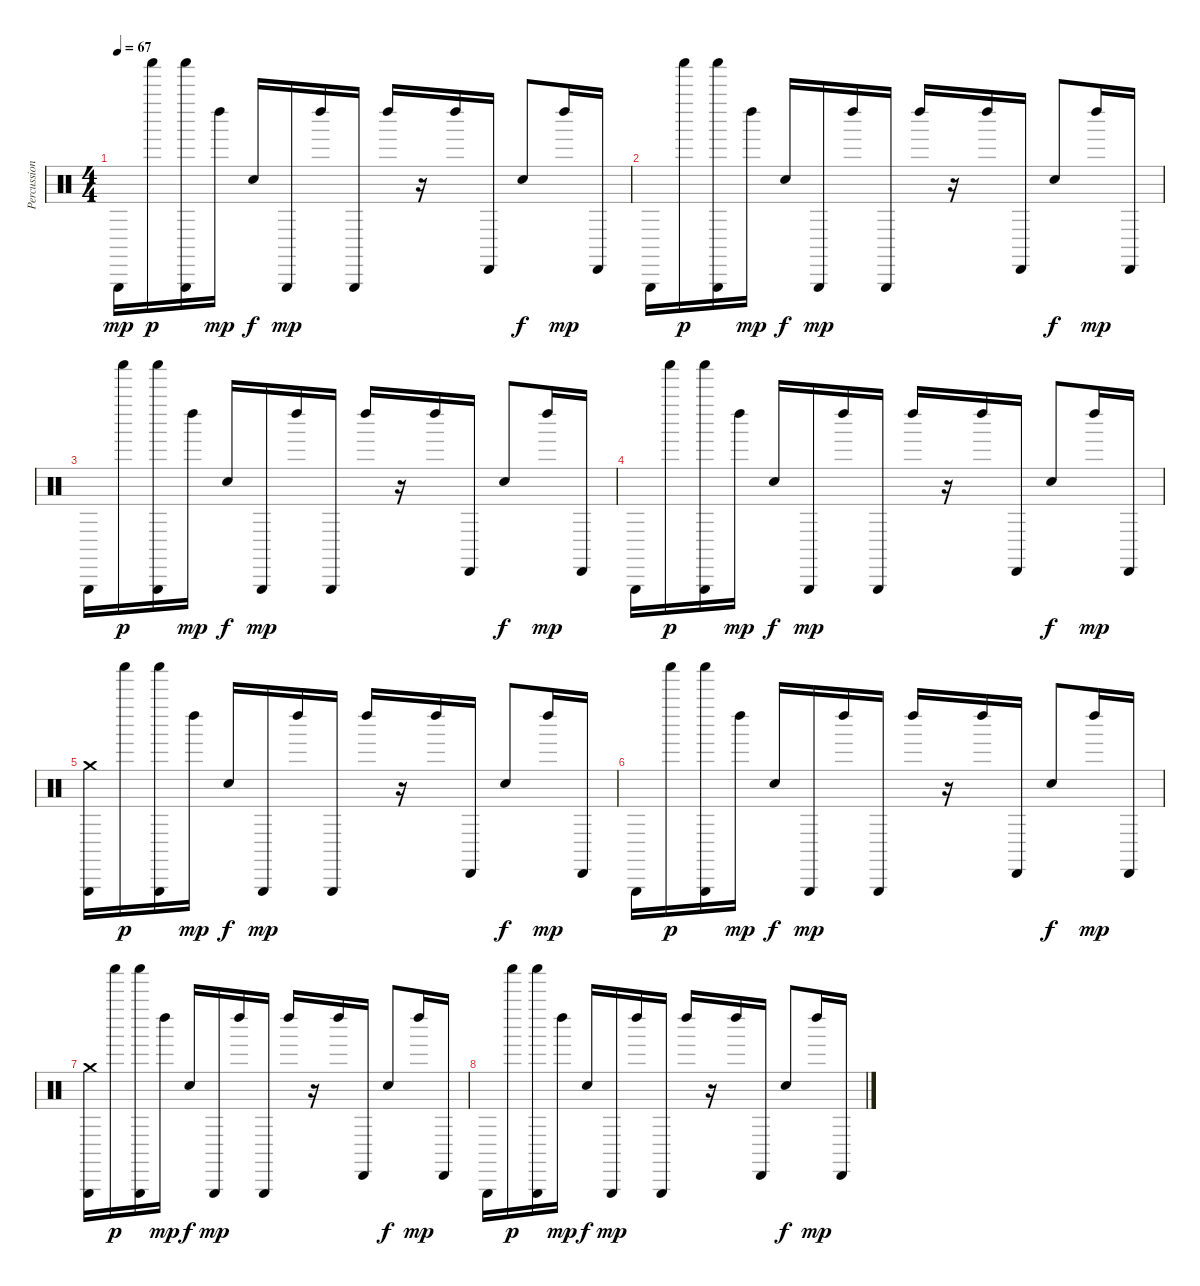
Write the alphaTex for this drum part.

\track ("Percussion" "Percussion") {instrument percussion}
\staff {score}
\articulation defaults
\ts (4 4)
\tempo 67
\clef neutral
\ks c "Triangle (hit)".16{dy mp} "Shaker (hit)".16{dy p}
("Triangle (hit)" "Shaker (hit)").16 "Left Maraca (hit)".16{dy mp} "Snare (hit) 2".16{dy f} "Triangle (hit)".16{dy mp} "Left Maraca (hit)".16 "Triangle (hit)".16 "Left Maraca (hit)".16 r.16 "Left Maraca (hit)".16 "Cabasa (hit)".16 "Snare (hit) 2".8{dy f} "Left Maraca (hit)".16{dy mp} "Cabasa (hit)".16 |
"Triangle (hit)".16 "Shaker (hit)".16{dy p} ("Triangle (hit)" "Shaker (hit)").16 "Left Maraca (hit)".16{dy mp} "Snare (hit) 2".16{dy f} "Triangle (hit)".16{dy mp} "Left Maraca (hit)".16 "Triangle (hit)".16 "Left Maraca (hit)".16 r.16 "Left Maraca (hit)".16 "Cabasa (hit)".16 "Snare (hit) 2".8{dy f} "Left Maraca (hit)".16{dy mp} "Cabasa (hit)".16 |
"Triangle (hit)".16 "Shaker (hit)".16{dy p} ("Triangle (hit)" "Shaker (hit)").16 "Left Maraca (hit)".16{dy mp} "Snare (hit) 2".16{dy f} "Triangle (hit)".16{dy mp} "Left Maraca (hit)".16 "Triangle (hit)".16 "Left Maraca (hit)".16 r.16 "Left Maraca (hit)".16 "Cabasa (hit)".16 "Snare (hit) 2".8{dy f} "Left Maraca (hit)".16{dy mp} "Cabasa (hit)".16 |
"Triangle (hit)".16 "Shaker (hit)".16{dy p} ("Triangle (hit)" "Shaker (hit)").16 "Left Maraca (hit)".16{dy mp} "Snare (hit) 2".16{dy f} "Triangle (hit)".16{dy mp} "Left Maraca (hit)".16 "Triangle (hit)".16 "Left Maraca (hit)".16 r.16 "Left Maraca (hit)".16 "Cabasa (hit)".16 "Snare (hit) 2".8{dy f} "Left Maraca (hit)".16{dy mp} "Cabasa (hit)".16 |
("Crash medium (hit)" "Triangle (hit)").16 "Shaker (hit)".16{dy p} ("Triangle (hit)" "Shaker (hit)").16 "Left Maraca (hit)".16{dy mp} "Snare (hit) 2".16{dy f} "Triangle (hit)".16{dy mp} "Left Maraca (hit)".16 "Triangle (hit)".16 "Left Maraca (hit)".16 r.16 "Left Maraca (hit)".16 "Cabasa (hit)".16 "Snare (hit) 2".8{dy f} "Left Maraca (hit)".16{dy mp} "Cabasa (hit)".16 |
"Triangle (hit)".16 "Shaker (hit)".16{dy p} ("Triangle (hit)" "Shaker (hit)").16 "Left Maraca (hit)".16{dy mp} "Snare (hit) 2".16{dy f} "Triangle (hit)".16{dy mp} "Left Maraca (hit)".16 "Triangle (hit)".16 "Left Maraca (hit)".16 r.16 "Left Maraca (hit)".16 "Cabasa (hit)".16 "Snare (hit) 2".8{dy f} "Left Maraca (hit)".16{dy mp} "Cabasa (hit)".16 |
("Crash medium (hit)" "Triangle (hit)").16 "Shaker (hit)".16{dy p} ("Triangle (hit)" "Shaker (hit)").16 "Left Maraca (hit)".16{dy mp} "Snare (hit) 2".16{dy f} "Triangle (hit)".16{dy mp} "Left Maraca (hit)".16 "Triangle (hit)".16 "Left Maraca (hit)".16 r.16 "Left Maraca (hit)".16 "Cabasa (hit)".16 "Snare (hit) 2".8{dy f} "Left Maraca (hit)".16{dy mp} "Cabasa (hit)".16 |
"Triangle (hit)".16 "Shaker (hit)".16{dy p} ("Triangle (hit)" "Shaker (hit)").16 "Left Maraca (hit)".16{dy mp} "Snare (hit) 2".16{dy f} "Triangle (hit)".16{dy mp} "Left Maraca (hit)".16 "Triangle (hit)".16 "Left Maraca (hit)".16 r.16 "Left Maraca (hit)".16 "Cabasa (hit)".16 "Snare (hit) 2".8{dy f} "Left Maraca (hit)".16{dy mp} "Cabasa (hit)".16
